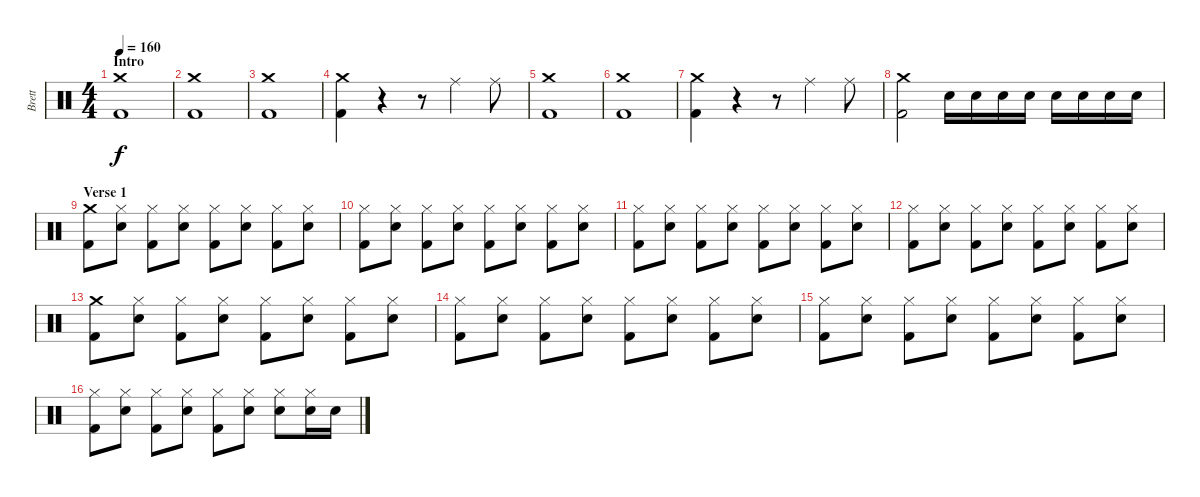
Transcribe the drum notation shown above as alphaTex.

\track ("Brett" "Brett") {instrument percussion}
\staff {score}
\articulation defaults
\ts (4 4)
\section ("" "Intro")
\tempo 160
\clef neutral
\ks c
("Crash medium (hit)" "Kick (hit) 2").1{dy f} |
("Crash medium (hit)" "Kick (hit) 2").1 |
("Crash medium (hit)" "Kick (hit) 2").1 |
("Crash medium (hit)" "Kick (hit) 2").4 r.4 r.8 "Ride (middle)".4 "Ride (middle)".8 |
("Crash medium (hit)" "Kick (hit) 2").1 |
("Crash medium (hit)" "Kick (hit) 2").1 |
("Crash medium (hit)" "Kick (hit) 2").4 r.4 r.8 "Ride (middle)".4 "Ride (middle)".8 |
("Crash medium (hit)" "Kick (hit) 2").2 "Snare (hit) 2".16 "Snare (hit) 2".16 "Snare (hit) 2".16 "Snare (hit) 2".16 "Snare (hit) 2".16 "Snare (hit) 2".16 "Snare (hit) 2".16 "Snare (hit) 2".16 |
\section ("" "Verse 1")
("Crash medium (hit)" "Kick (hit) 2").8 ("Hi-Hat (closed)" "Snare (hit) 2").8 ("Hi-Hat (closed)" "Kick (hit) 2").8 ("Hi-Hat (closed)" "Snare (hit) 2").8 ("Hi-Hat (closed)" "Kick (hit) 2").8 ("Hi-Hat (closed)" "Snare (hit) 2").8 ("Hi-Hat (closed)" "Kick (hit) 2").8 ("Hi-Hat (closed)" "Snare (hit) 2").8 |
("Hi-Hat (closed)" "Kick (hit) 2").8 ("Hi-Hat (closed)" "Snare (hit) 2").8 ("Hi-Hat (closed)" "Kick (hit) 2").8 ("Hi-Hat (closed)" "Snare (hit) 2").8 ("Hi-Hat (closed)" "Kick (hit) 2").8 ("Hi-Hat (closed)" "Snare (hit) 2").8 ("Hi-Hat (closed)" "Kick (hit) 2").8 ("Hi-Hat (closed)" "Snare (hit) 2").8 |
("Hi-Hat (closed)" "Kick (hit) 2").8 ("Hi-Hat (closed)" "Snare (hit) 2").8 ("Hi-Hat (closed)" "Kick (hit) 2").8 ("Hi-Hat (closed)" "Snare (hit) 2").8 ("Hi-Hat (closed)" "Kick (hit) 2").8 ("Hi-Hat (closed)" "Snare (hit) 2").8 ("Hi-Hat (closed)" "Kick (hit) 2").8 ("Hi-Hat (closed)" "Snare (hit) 2").8 |
("Hi-Hat (closed)" "Kick (hit) 2").8 ("Hi-Hat (closed)" "Snare (hit) 2").8 ("Hi-Hat (closed)" "Kick (hit) 2").8 ("Hi-Hat (closed)" "Snare (hit) 2").8 ("Hi-Hat (closed)" "Kick (hit) 2").8 ("Hi-Hat (closed)" "Snare (hit) 2").8 ("Hi-Hat (closed)" "Kick (hit) 2").8 ("Hi-Hat (closed)" "Snare (hit) 2").8 |
("Crash medium (hit)" "Kick (hit) 2").8 ("Hi-Hat (closed)" "Snare (hit) 2").8 ("Hi-Hat (closed)" "Kick (hit) 2").8 ("Hi-Hat (closed)" "Snare (hit) 2").8 ("Hi-Hat (closed)" "Kick (hit) 2").8 ("Hi-Hat (closed)" "Snare (hit) 2").8 ("Hi-Hat (closed)" "Kick (hit) 2").8 ("Hi-Hat (closed)" "Snare (hit) 2").8 |
("Hi-Hat (closed)" "Kick (hit) 2").8 ("Hi-Hat (closed)" "Snare (hit) 2").8 ("Hi-Hat (closed)" "Kick (hit) 2").8 ("Hi-Hat (closed)" "Snare (hit) 2").8 ("Hi-Hat (closed)" "Kick (hit) 2").8 ("Hi-Hat (closed)" "Snare (hit) 2").8 ("Hi-Hat (closed)" "Kick (hit) 2").8 ("Hi-Hat (closed)" "Snare (hit) 2").8 |
("Hi-Hat (closed)" "Kick (hit) 2").8 ("Hi-Hat (closed)" "Snare (hit) 2").8 ("Hi-Hat (closed)" "Kick (hit) 2").8 ("Hi-Hat (closed)" "Snare (hit) 2").8 ("Hi-Hat (closed)" "Kick (hit) 2").8 ("Hi-Hat (closed)" "Snare (hit) 2").8 ("Hi-Hat (closed)" "Kick (hit) 2").8 ("Hi-Hat (closed)" "Snare (hit) 2").8 |
("Hi-Hat (closed)" "Kick (hit) 2").8 ("Hi-Hat (closed)" "Snare (hit) 2").8 ("Hi-Hat (closed)" "Kick (hit) 2").8 ("Hi-Hat (closed)" "Snare (hit) 2").8 ("Hi-Hat (closed)" "Kick (hit) 2").8 ("Hi-Hat (closed)" "Snare (hit) 2").8 ("Hi-Hat (closed)" "Snare (hit) 2").8 ("Hi-Hat (closed)" "Snare (hit) 2").16 "Snare (hit) 2".16
